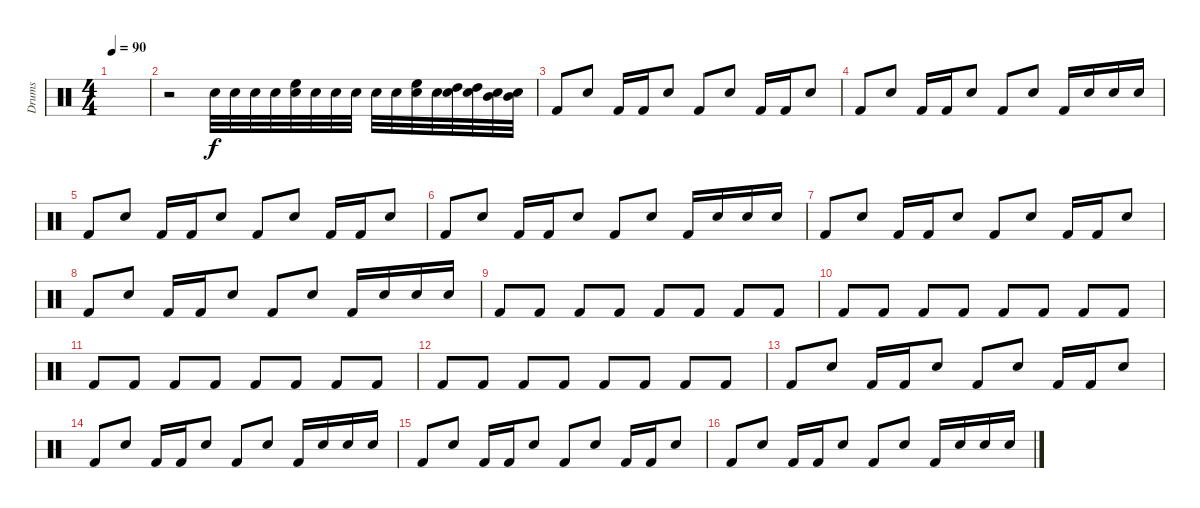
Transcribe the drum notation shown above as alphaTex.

\track ("Drums" "Drums") {instrument percussion}
\staff {score}
\articulation defaults
\ts (4 4)
\tempo 90
\clef neutral
\ks c
|
r.2 "Snare (hit) 2".32 "Snare (hit) 2".32 "Snare (hit) 2".32 "Snare (hit) 2".32 ("High Floor Tom (hit)" "Snare (hit) 2").32 "Snare (hit) 2".32 "Snare (hit) 2".32 "Snare (hit) 2".32 "Snare (hit) 2".32 "Snare (hit) 2".32 ("High Floor Tom (hit)" "Snare (hit) 2").32 "Snare (hit) 2".32 ("High Tom (hit)" "Snare (hit) 2").32 ("High Tom (hit)" "Snare (hit) 2").32 ("Mid Tom (hit)" "Snare (hit) 2").32 ("Mid Tom (hit)" "Snare (hit) 2").32 |
"Kick (hit) 2".8 "Snare (hit) 2".8 "Kick (hit) 2".16 "Kick (hit) 2".16 "Snare (hit) 2".8 "Kick (hit) 2".8 "Snare (hit) 2".8 "Kick (hit) 2".16 "Kick (hit) 2".16 "Snare (hit) 2".8 |
"Kick (hit) 2".8 "Snare (hit) 2".8 "Kick (hit) 2".16 "Kick (hit) 2".16 "Snare (hit) 2".8 "Kick (hit) 2".8 "Snare (hit) 2".8 "Kick (hit) 2".16 "Snare (hit) 2".16 "Snare (hit) 2".16 "Snare (hit) 2".16 |
"Kick (hit) 2".8 "Snare (hit) 2".8 "Kick (hit) 2".16 "Kick (hit) 2".16 "Snare (hit) 2".8 "Kick (hit) 2".8 "Snare (hit) 2".8 "Kick (hit) 2".16 "Kick (hit) 2".16 "Snare (hit) 2".8 |
"Kick (hit) 2".8 "Snare (hit) 2".8 "Kick (hit) 2".16 "Kick (hit) 2".16 "Snare (hit) 2".8 "Kick (hit) 2".8 "Snare (hit) 2".8 "Kick (hit) 2".16 "Snare (hit) 2".16 "Snare (hit) 2".16 "Snare (hit) 2".16 |
"Kick (hit) 2".8 "Snare (hit) 2".8 "Kick (hit) 2".16 "Kick (hit) 2".16 "Snare (hit) 2".8 "Kick (hit) 2".8 "Snare (hit) 2".8 "Kick (hit) 2".16 "Kick (hit) 2".16 "Snare (hit) 2".8 |
"Kick (hit) 2".8 "Snare (hit) 2".8 "Kick (hit) 2".16 "Kick (hit) 2".16 "Snare (hit) 2".8 "Kick (hit) 2".8 "Snare (hit) 2".8 "Kick (hit) 2".16 "Snare (hit) 2".16 "Snare (hit) 2".16 "Snare (hit) 2".16 |
"Kick (hit) 2".8 "Kick (hit) 2".8 "Kick (hit) 2".8 "Kick (hit) 2".8 "Kick (hit) 2".8 "Kick (hit) 2".8 "Kick (hit) 2".8 "Kick (hit) 2".8 |
"Kick (hit) 2".8 "Kick (hit) 2".8 "Kick (hit) 2".8 "Kick (hit) 2".8 "Kick (hit) 2".8 "Kick (hit) 2".8 "Kick (hit) 2".8 "Kick (hit) 2".8 |
"Kick (hit) 2".8 "Kick (hit) 2".8 "Kick (hit) 2".8 "Kick (hit) 2".8 "Kick (hit) 2".8 "Kick (hit) 2".8 "Kick (hit) 2".8 "Kick (hit) 2".8 |
"Kick (hit) 2".8 "Kick (hit) 2".8 "Kick (hit) 2".8 "Kick (hit) 2".8 "Kick (hit) 2".8 "Kick (hit) 2".8 "Kick (hit) 2".8 "Kick (hit) 2".8 |
"Kick (hit) 2".8 "Snare (hit) 2".8 "Kick (hit) 2".16 "Kick (hit) 2".16 "Snare (hit) 2".8 "Kick (hit) 2".8 "Snare (hit) 2".8 "Kick (hit) 2".16 "Kick (hit) 2".16 "Snare (hit) 2".8 |
"Kick (hit) 2".8 "Snare (hit) 2".8 "Kick (hit) 2".16 "Kick (hit) 2".16 "Snare (hit) 2".8 "Kick (hit) 2".8 "Snare (hit) 2".8 "Kick (hit) 2".16 "Snare (hit) 2".16 "Snare (hit) 2".16 "Snare (hit) 2".16 |
"Kick (hit) 2".8 "Snare (hit) 2".8 "Kick (hit) 2".16 "Kick (hit) 2".16 "Snare (hit) 2".8 "Kick (hit) 2".8 "Snare (hit) 2".8 "Kick (hit) 2".16 "Kick (hit) 2".16 "Snare (hit) 2".8 |
"Kick (hit) 2".8 "Snare (hit) 2".8 "Kick (hit) 2".16 "Kick (hit) 2".16 "Snare (hit) 2".8 "Kick (hit) 2".8 "Snare (hit) 2".8 "Kick (hit) 2".16 "Snare (hit) 2".16 "Snare (hit) 2".16 "Snare (hit) 2".16
